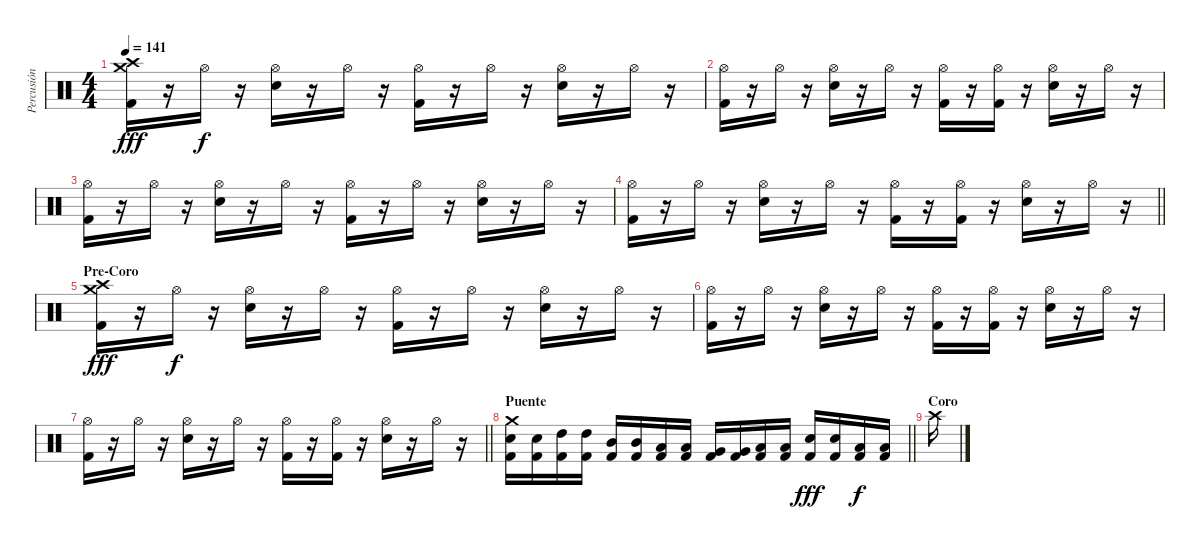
\track ("Percusión" "Percusión") {instrument percussion}
\staff {score}
\articulation defaults
\ts (4 4)
\tempo 141
\clef neutral
\ks c
("Crash high (hit)" "Crash medium (hit)" "Kick (hit) 2").16{dy fff} r.16 "Hi-Hat (open)".16{dy f} r.16 ("Hi-Hat (open)" "Electric Snare (hit)").16 r.16 "Hi-Hat (open)".16 r.16 ("Hi-Hat (open)" "Kick (hit) 2").16 r.16 "Hi-Hat (open)".16 r.16 ("Hi-Hat (open)" "Electric Snare (hit)").16 r.16 "Hi-Hat (open)".16 r.16 |
("Hi-Hat (open)" "Kick (hit) 2").16 r.16 "Hi-Hat (open)".16 r.16 ("Hi-Hat (open)" "Electric Snare (hit)").16 r.16 "Hi-Hat (open)".16 r.16 ("Hi-Hat (open)" "Kick (hit) 2").16 r.16 ("Hi-Hat (open)" "Kick (hit) 2").16 r.16 ("Hi-Hat (open)" "Electric Snare (hit)").16 r.16 "Hi-Hat (open)".16 r.16 |
("Hi-Hat (open)" "Kick (hit) 2").16 r.16 "Hi-Hat (open)".16 r.16 ("Hi-Hat (open)" "Electric Snare (hit)").16 r.16 "Hi-Hat (open)".16 r.16 ("Hi-Hat (open)" "Kick (hit) 2").16 r.16 "Hi-Hat (open)".16 r.16 ("Hi-Hat (open)" "Electric Snare (hit)").16 r.16 "Hi-Hat (open)".16 r.16 |
\barLineRight lightlight
("Hi-Hat (open)" "Kick (hit) 2").16 r.16 "Hi-Hat (open)".16 r.16 ("Hi-Hat (open)" "Electric Snare (hit)").16 r.16 "Hi-Hat (open)".16 r.16 ("Hi-Hat (open)" "Kick (hit) 2").16 r.16 ("Hi-Hat (open)" "Kick (hit) 2").16 r.16 ("Hi-Hat (open)" "Electric Snare (hit)").16 r.16 "Hi-Hat (open)".16 r.16 |
\section ("" "Pre-Coro")
("Crash high (hit)" "Crash medium (hit)" "Kick (hit) 2").16{dy fff} r.16 "Hi-Hat (open)".16{dy f} r.16 ("Hi-Hat (open)" "Electric Snare (hit)").16 r.16 "Hi-Hat (open)".16 r.16 ("Hi-Hat (open)" "Kick (hit) 2").16 r.16 "Hi-Hat (open)".16 r.16 ("Hi-Hat (open)" "Electric Snare (hit)").16 r.16 "Hi-Hat (open)".16 r.16 |
("Hi-Hat (open)" "Kick (hit) 2").16 r.16 "Hi-Hat (open)".16 r.16 ("Hi-Hat (open)" "Electric Snare (hit)").16 r.16 "Hi-Hat (open)".16 r.16 ("Hi-Hat (open)" "Kick (hit) 2").16 r.16 ("Hi-Hat (open)" "Kick (hit) 2").16 r.16 ("Hi-Hat (open)" "Electric Snare (hit)").16 r.16 "Hi-Hat (open)".16 r.16 |
\barLineRight lightlight
("Hi-Hat (open)" "Kick (hit) 2").16 r.16 "Hi-Hat (open)".16 r.16 ("Hi-Hat (open)" "Electric Snare (hit)").16 r.16 "Hi-Hat (open)".16 r.16 ("Hi-Hat (open)" "Kick (hit) 2").16 r.16 ("Hi-Hat (open)" "Kick (hit) 2").16 r.16 ("Hi-Hat (open)" "Electric Snare (hit)").16 r.16 "Hi-Hat (open)".16 r.16 |
\section ("" "Puente")
\barLineRight lightlight
("Crash medium (hit)" "Electric Snare (hit)" "Kick (hit) 2").16 ("Electric Snare (hit)" "Kick (hit) 2").16 ("High Tom (hit)" "Kick (hit) 2").16 ("High Tom (hit)" "Kick (hit) 2").16 ("Mid Tom (hit)" "Kick (hit) 2").16 ("Mid Tom (hit)" "Kick (hit) 2").16 ("Low Tom (hit)" "Kick (hit) 2").16 ("Low Tom (hit)" "Kick (hit) 2").16 ("Very Low Tom (hit)" "Kick (hit) 2").16 ("Very Low Tom (hit)" "Kick (hit) 2").16 ("Low Floor Tom (hit)" "Kick (hit) 2").16 ("Low Floor Tom (hit)" "Kick (hit) 2").16 ("Electric Snare (hit)" "Kick (hit) 2").16{dy fff} ("Electric Snare (hit)" "Kick (hit) 2").16 ("Low Floor Tom (hit)" "Kick (hit) 2").16{dy f} ("Low Floor Tom (hit)" "Kick (hit) 2").16 |
\section ("" "Coro")
"Crash high (hit)".16
